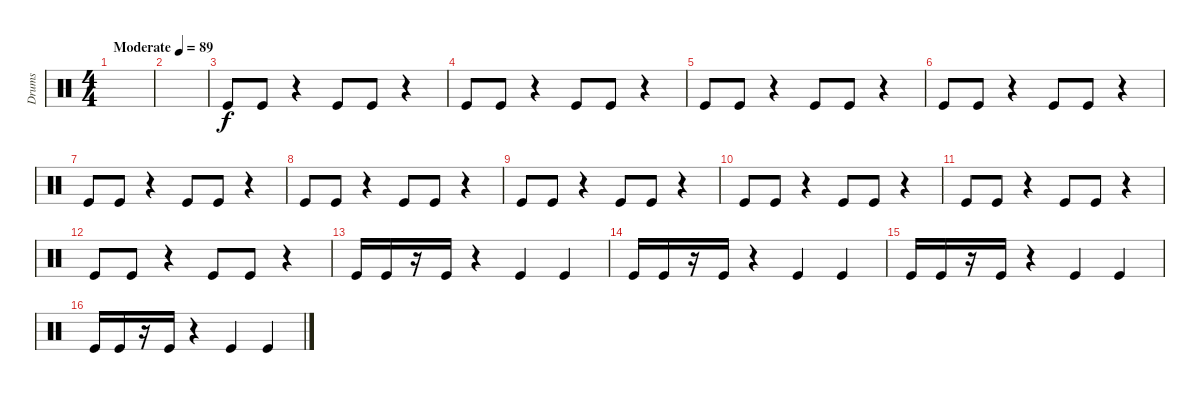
\track ("Drums" "Drums") {instrument percussion}
\staff {score}
\articulation defaults
\ts (4 4)
\tempo (89 "Moderate")
\clef neutral
\ks c
|
|
"Kick (hit)".8 "Kick (hit)".8 r.4 "Kick (hit)".8 "Kick (hit)".8 r.4 |
"Kick (hit)".8 "Kick (hit)".8 r.4 "Kick (hit)".8 "Kick (hit)".8 r.4 |
"Kick (hit)".8 "Kick (hit)".8 r.4 "Kick (hit)".8 "Kick (hit)".8 r.4 |
"Kick (hit)".8 "Kick (hit)".8 r.4 "Kick (hit)".8 "Kick (hit)".8 r.4 |
"Kick (hit)".8 "Kick (hit)".8 r.4 "Kick (hit)".8 "Kick (hit)".8 r.4 |
"Kick (hit)".8 "Kick (hit)".8 r.4 "Kick (hit)".8 "Kick (hit)".8 r.4 |
"Kick (hit)".8 "Kick (hit)".8 r.4 "Kick (hit)".8 "Kick (hit)".8 r.4 |
"Kick (hit)".8 "Kick (hit)".8 r.4 "Kick (hit)".8 "Kick (hit)".8 r.4 |
"Kick (hit)".8 "Kick (hit)".8 r.4 "Kick (hit)".8 "Kick (hit)".8 r.4 |
"Kick (hit)".8 "Kick (hit)".8 r.4 "Kick (hit)".8 "Kick (hit)".8 r.4 |
"Kick (hit)".16 "Kick (hit)".16 r.16 "Kick (hit)".16 r.4 "Kick (hit)".4 "Kick (hit)".4 |
"Kick (hit)".16 "Kick (hit)".16 r.16 "Kick (hit)".16 r.4 "Kick (hit)".4 "Kick (hit)".4 |
"Kick (hit)".16 "Kick (hit)".16 r.16 "Kick (hit)".16 r.4 "Kick (hit)".4 "Kick (hit)".4 |
"Kick (hit)".16 "Kick (hit)".16 r.16 "Kick (hit)".16 r.4 "Kick (hit)".4 "Kick (hit)".4
